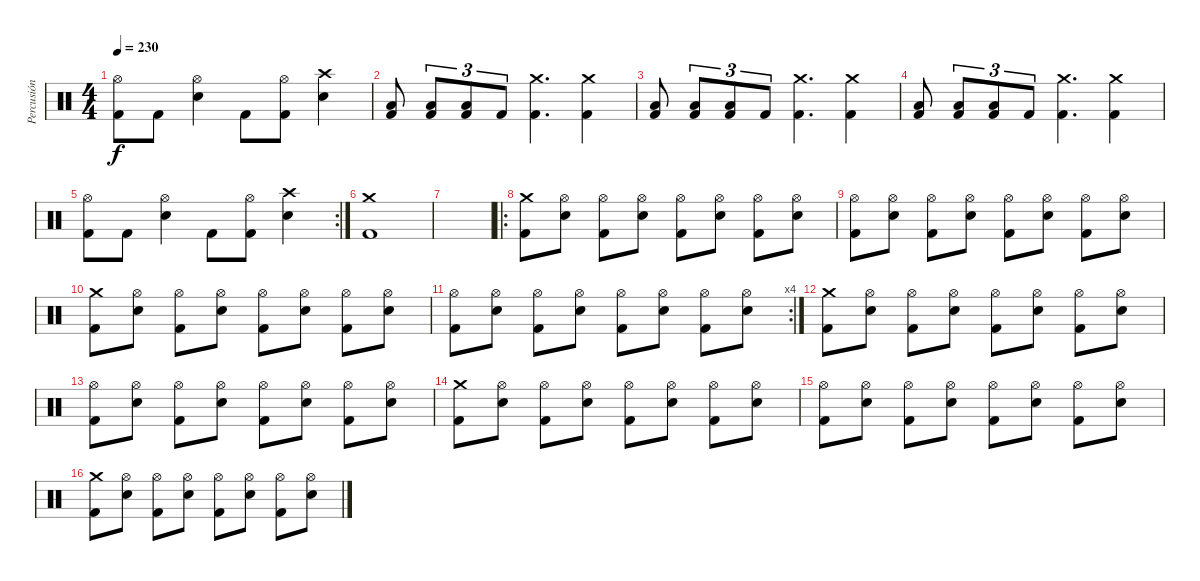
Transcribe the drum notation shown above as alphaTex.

\track ("Percusión" "Percusión") {instrument percussion}
\staff {score}
\articulation defaults
\ts (4 4)
\tempo 230
\clef neutral
\ks c
("Hi-Hat (open)" "Kick (hit) 2").8{dy f} "Kick (hit) 2".8 ("Hi-Hat (open)" "Electric Snare (hit)").4 "Kick (hit) 2".8 ("Hi-Hat (open)" "Kick (hit) 2").8 ("Crash high (hit)" "Electric Snare (hit)").4 |
("Low Tom (hit)" "Kick (hit) 2").8 ("Low Tom (hit)" "Kick (hit) 2").8{tu (3 2)} ("Low Floor Tom (hit)" "Kick (hit) 2").8{tu (3 2)} "Kick (hit) 2".8{tu (3 2)} ("Crash medium (hit)" "Kick (hit) 2").4{d} ("Crash medium (hit)" "Kick (hit) 2").4 |
("Low Tom (hit)" "Kick (hit) 2").8 ("Low Tom (hit)" "Kick (hit) 2").8{tu (3 2)} ("Low Floor Tom (hit)" "Kick (hit) 2").8{tu (3 2)} "Kick (hit) 2".8{tu (3 2)} ("Crash medium (hit)" "Kick (hit) 2").4{d} ("Crash medium (hit)" "Kick (hit) 2").4 |
("Low Tom (hit)" "Kick (hit) 2").8 ("Low Tom (hit)" "Kick (hit) 2").8{tu (3 2)} ("Low Floor Tom (hit)" "Kick (hit) 2").8{tu (3 2)} "Kick (hit) 2".8{tu (3 2)} ("Crash medium (hit)" "Kick (hit) 2").4{d} ("Crash medium (hit)" "Kick (hit) 2").4 |
\rc 2
("Hi-Hat (open)" "Kick (hit) 2").8 "Kick (hit) 2".8 ("Hi-Hat (open)" "Electric Snare (hit)").4 "Kick (hit) 2".8 ("Hi-Hat (open)" "Kick (hit) 2").8 ("Crash high (hit)" "Electric Snare (hit)").4 |
("Crash medium (hit)" "Kick (hit) 2").1 |
|
\ro
("Crash medium (hit)" "Kick (hit) 2").8 ("Hi-Hat (open)" "Electric Snare (hit)").8 ("Hi-Hat (open)" "Kick (hit) 2").8 ("Hi-Hat (open)" "Electric Snare (hit)").8 ("Hi-Hat (open)" "Kick (hit) 2").8 ("Hi-Hat (open)" "Electric Snare (hit)").8 ("Hi-Hat (open)" "Kick (hit) 2").8 ("Hi-Hat (open)" "Electric Snare (hit)").8 |
("Hi-Hat (open)" "Kick (hit) 2").8 ("Hi-Hat (open)" "Electric Snare (hit)").8 ("Hi-Hat (open)" "Kick (hit) 2").8 ("Hi-Hat (open)" "Electric Snare (hit)").8 ("Hi-Hat (open)" "Kick (hit) 2").8 ("Hi-Hat (open)" "Electric Snare (hit)").8 ("Hi-Hat (open)" "Kick (hit) 2").8 ("Hi-Hat (open)" "Electric Snare (hit)").8 |
("Crash medium (hit)" "Kick (hit) 2").8 ("Hi-Hat (open)" "Electric Snare (hit)").8 ("Hi-Hat (open)" "Kick (hit) 2").8 ("Hi-Hat (open)" "Electric Snare (hit)").8 ("Hi-Hat (open)" "Kick (hit) 2").8 ("Hi-Hat (open)" "Electric Snare (hit)").8 ("Hi-Hat (open)" "Kick (hit) 2").8 ("Hi-Hat (open)" "Electric Snare (hit)").8 |
\rc 4
("Hi-Hat (open)" "Kick (hit) 2").8 ("Hi-Hat (open)" "Electric Snare (hit)").8 ("Hi-Hat (open)" "Kick (hit) 2").8 ("Hi-Hat (open)" "Electric Snare (hit)").8 ("Hi-Hat (open)" "Kick (hit) 2").8 ("Hi-Hat (open)" "Electric Snare (hit)").8 ("Hi-Hat (open)" "Kick (hit) 2").8 ("Hi-Hat (open)" "Electric Snare (hit)").8 |
("Crash medium (hit)" "Kick (hit) 2").8 ("Hi-Hat (open)" "Electric Snare (hit)").8 ("Hi-Hat (open)" "Kick (hit) 2").8 ("Hi-Hat (open)" "Electric Snare (hit)").8 ("Hi-Hat (open)" "Kick (hit) 2").8 ("Hi-Hat (open)" "Electric Snare (hit)").8 ("Hi-Hat (open)" "Kick (hit) 2").8 ("Hi-Hat (open)" "Electric Snare (hit)").8 |
("Hi-Hat (open)" "Kick (hit) 2").8 ("Hi-Hat (open)" "Electric Snare (hit)").8 ("Hi-Hat (open)" "Kick (hit) 2").8 ("Hi-Hat (open)" "Electric Snare (hit)").8 ("Hi-Hat (open)" "Kick (hit) 2").8 ("Hi-Hat (open)" "Electric Snare (hit)").8 ("Hi-Hat (open)" "Kick (hit) 2").8 ("Hi-Hat (open)" "Electric Snare (hit)").8 |
("Crash medium (hit)" "Kick (hit) 2").8 ("Hi-Hat (open)" "Electric Snare (hit)").8 ("Hi-Hat (open)" "Kick (hit) 2").8 ("Hi-Hat (open)" "Electric Snare (hit)").8 ("Hi-Hat (open)" "Kick (hit) 2").8 ("Hi-Hat (open)" "Electric Snare (hit)").8 ("Hi-Hat (open)" "Kick (hit) 2").8 ("Hi-Hat (open)" "Electric Snare (hit)").8 |
("Hi-Hat (open)" "Kick (hit) 2").8 ("Hi-Hat (open)" "Electric Snare (hit)").8 ("Hi-Hat (open)" "Kick (hit) 2").8 ("Hi-Hat (open)" "Electric Snare (hit)").8 ("Hi-Hat (open)" "Kick (hit) 2").8 ("Hi-Hat (open)" "Electric Snare (hit)").8 ("Hi-Hat (open)" "Kick (hit) 2").8 ("Hi-Hat (open)" "Electric Snare (hit)").8 |
("Crash medium (hit)" "Kick (hit) 2").8 ("Hi-Hat (open)" "Electric Snare (hit)").8 ("Hi-Hat (open)" "Kick (hit) 2").8 ("Hi-Hat (open)" "Electric Snare (hit)").8 ("Hi-Hat (open)" "Kick (hit) 2").8 ("Hi-Hat (open)" "Electric Snare (hit)").8 ("Hi-Hat (open)" "Kick (hit) 2").8 ("Hi-Hat (open)" "Electric Snare (hit)").8
